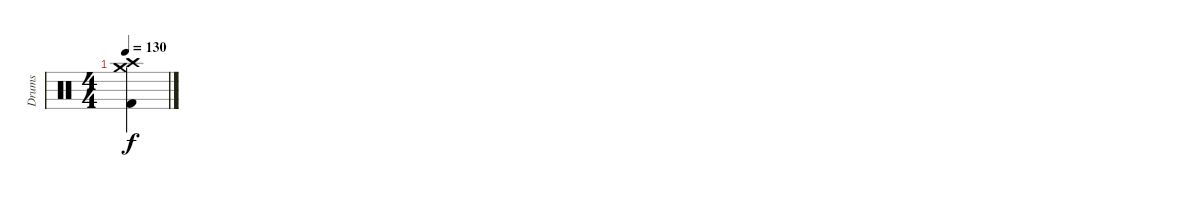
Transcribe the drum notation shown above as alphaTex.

\track ("Drums" "Drums") {instrument percussion}
\staff {score}
\articulation defaults
\ts (4 4)
\tempo 130
\clef neutral
\ks c
("Kick (hit) 2" "Crash high (hit)" "Crash medium (hit)").4{dy f}
